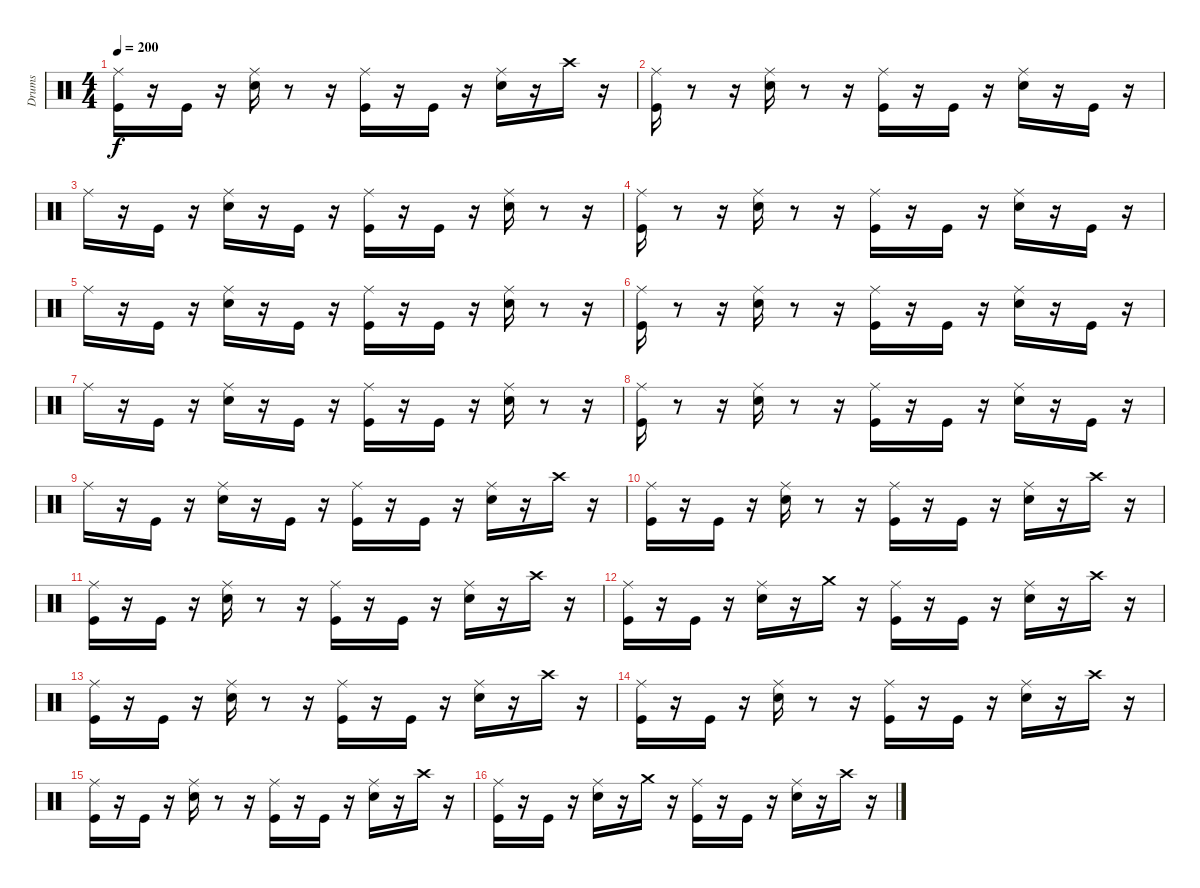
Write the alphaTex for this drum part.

\track ("Drums" "Drums") {instrument percussion}
\staff {score}
\articulation defaults
\ts (4 4)
\tempo 200
\clef neutral
\ks c
("Ride (middle)" "Kick (hit)").16{dy f} r.16 "Kick (hit)".16 r.16 ("Ride (middle)" "Snare (hit) 2").16 r.8 r.16 ("Ride (middle)" "Kick (hit)").16 r.16 "Kick (hit)".16 r.16 ("Ride (middle)" "Snare (hit) 2").16 r.16 "Crash high (hit)".16 r.16 |
("Ride (middle)" "Kick (hit)").16 r.8 r.16 ("Ride (middle)" "Snare (hit) 2").16 r.8 r.16 ("Ride (middle)" "Kick (hit)").16 r.16 "Kick (hit)".16 r.16 ("Ride (middle)" "Snare (hit) 2").16 r.16 "Kick (hit)".16 r.16 |
"Ride (middle)".16 r.16 "Kick (hit)".16 r.16 ("Ride (middle)" "Snare (hit) 2").16 r.16 "Kick (hit)".16 r.16 ("Ride (middle)" "Kick (hit)").16 r.16 "Kick (hit)".16 r.16 ("Ride (middle)" "Snare (hit) 2").16 r.8 r.16 |
("Ride (middle)" "Kick (hit)").16 r.8 r.16 ("Ride (middle)" "Snare (hit) 2").16 r.8 r.16 ("Ride (middle)" "Kick (hit)").16 r.16 "Kick (hit)".16 r.16 ("Ride (middle)" "Snare (hit) 2").16 r.16 "Kick (hit)".16 r.16 |
"Ride (middle)".16 r.16 "Kick (hit)".16 r.16 ("Ride (middle)" "Snare (hit) 2").16 r.16 "Kick (hit)".16 r.16 ("Ride (middle)" "Kick (hit)").16 r.16 "Kick (hit)".16 r.16 ("Ride (middle)" "Snare (hit) 2").16 r.8 r.16 |
("Ride (middle)" "Kick (hit)").16 r.8 r.16 ("Ride (middle)" "Snare (hit) 2").16 r.8 r.16 ("Ride (middle)" "Kick (hit)").16 r.16 "Kick (hit)".16 r.16 ("Ride (middle)" "Snare (hit) 2").16 r.16 "Kick (hit)".16 r.16 |
"Ride (middle)".16 r.16 "Kick (hit)".16 r.16 ("Ride (middle)" "Snare (hit) 2").16 r.16 "Kick (hit)".16 r.16 ("Ride (middle)" "Kick (hit)").16 r.16 "Kick (hit)".16 r.16 ("Ride (middle)" "Snare (hit) 2").16 r.8 r.16 |
("Ride (middle)" "Kick (hit)").16 r.8 r.16 ("Ride (middle)" "Snare (hit) 2").16 r.8 r.16 ("Ride (middle)" "Kick (hit)").16 r.16 "Kick (hit)".16 r.16 ("Ride (middle)" "Snare (hit) 2").16 r.16 "Kick (hit)".16 r.16 |
"Ride (middle)".16 r.16 "Kick (hit)".16 r.16 ("Ride (middle)" "Snare (hit) 2").16 r.16 "Kick (hit)".16 r.16 ("Ride (middle)" "Kick (hit)").16 r.16 "Kick (hit)".16 r.16 ("Ride (middle)" "Snare (hit) 2").16 r.16 "Crash high (hit)".16 r.16 |
("Kick (hit)" "Ride (middle)").16 r.16 "Kick (hit)".16 r.16 ("Snare (hit) 2" "Ride (middle)").16 r.8 r.16 ("Kick (hit)" "Ride (middle)").16 r.16 "Kick (hit)".16 r.16 ("Snare (hit) 2" "Ride (middle)").16 r.16 "Crash high (hit)".16 r.16 |
("Kick (hit)" "Ride (middle)").16 r.16 "Kick (hit)".16 r.16 ("Snare (hit) 2" "Ride (middle)").16 r.8 r.16 ("Kick (hit)" "Ride (middle)").16 r.16 "Kick (hit)".16 r.16 ("Snare (hit) 2" "Ride (middle)").16 r.16 "Crash high (hit)".16 r.16 |
("Kick (hit)" "Ride (middle)").16 r.16 "Kick (hit)".16 r.16 ("Snare (hit) 2" "Ride (middle)").16 r.16 "Crash medium (hit)".16 r.16 ("Kick (hit)" "Ride (middle)").16 r.16 "Kick (hit)".16 r.16 ("Snare (hit) 2" "Ride (middle)").16 r.16 "Crash high (hit)".16 r.16 |
("Kick (hit)" "Ride (middle)").16 r.16 "Kick (hit)".16 r.16 ("Snare (hit) 2" "Ride (middle)").16 r.8 r.16 ("Ride (middle)" "Kick (hit)").16 r.16 "Kick (hit)".16 r.16 ("Snare (hit) 2" "Ride (middle)").16 r.16 "Crash high (hit)".16 r.16 |
("Kick (hit)" "Ride (middle)").16 r.16 "Kick (hit)".16 r.16 ("Snare (hit) 2" "Ride (middle)").16 r.8 r.16 ("Ride (middle)" "Kick (hit)").16 r.16 "Kick (hit)".16 r.16 ("Snare (hit) 2" "Ride (middle)").16 r.16 "Crash high (hit)".16 r.16 |
("Kick (hit)" "Ride (middle)").16 r.16 "Kick (hit)".16 r.16 ("Snare (hit) 2" "Ride (middle)").16 r.8 r.16 ("Ride (middle)" "Kick (hit)").16 r.16 "Kick (hit)".16 r.16 ("Snare (hit) 2" "Ride (middle)").16 r.16 "Crash high (hit)".16 r.16 |
("Kick (hit)" "Ride (middle)").16 r.16 "Kick (hit)".16 r.16 ("Snare (hit) 2" "Ride (middle)").16 r.16 "Crash medium (hit)".16 r.16 ("Ride (middle)" "Kick (hit)").16 r.16 "Kick (hit)".16 r.16 ("Snare (hit) 2" "Ride (middle)").16 r.16 "Crash high (hit)".16 r.16
